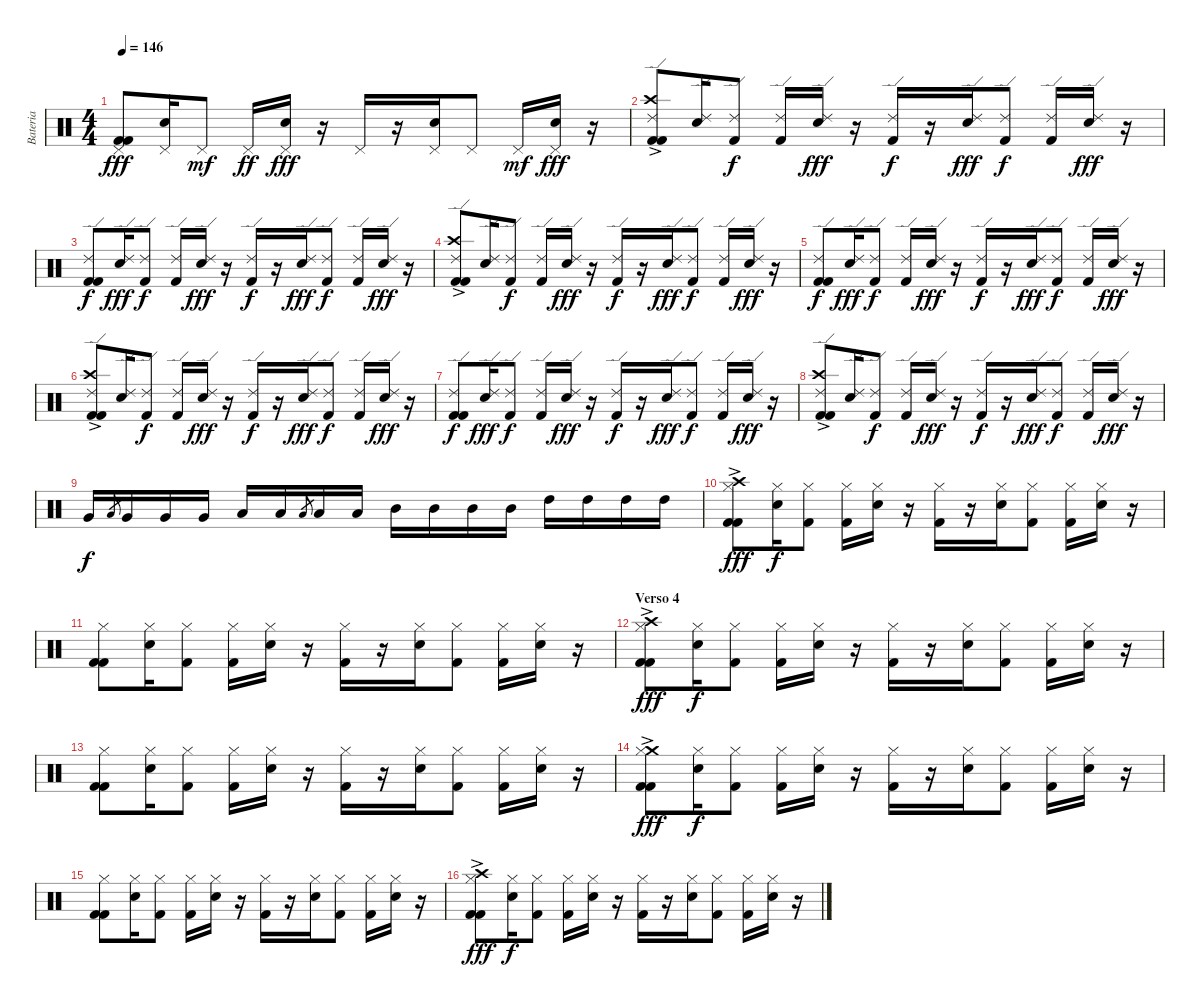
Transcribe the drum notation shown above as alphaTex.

\track ("Bateria" "Bateria") {instrument percussion}
\staff {score}
\articulation defaults
\ts (4 4)
\tempo 146
\clef neutral
\ks c
("Pedal Hi-Hat (hit)" "Kick (hit) 2" "Kick (hit) 2").8{dy fff} ("Pedal Hi-Hat (hit)" "Electric Snare (hit)").16 "Pedal Hi-Hat (hit)".8{dy mf} "Pedal Hi-Hat (hit)".16{dy ff} ("Pedal Hi-Hat (hit)" "Electric Snare (hit)").16{dy fff} r.16 "Pedal Hi-Hat (hit)".16 r.16 ("Pedal Hi-Hat (hit)" "Electric Snare (hit)").16 "Pedal Hi-Hat (hit)".8 "Pedal Hi-Hat (hit)".16{dy mf} ("Pedal Hi-Hat (hit)" "Electric Snare (hit)").16{dy fff} r.16 |
("Crash high (hit)"{ac} "Ride (edge) 2" "Kick (hit) 2" "Kick (hit) 2").8 ("Ride (edge) 2" "Electric Snare (hit)").16 ("Ride (edge) 2" "Kick (hit) 2").8{dy f} ("Ride (edge) 2" "Kick (hit) 2").16 ("Ride (edge) 2" "Electric Snare (hit)").16{dy fff} r.16 ("Ride (edge) 2" "Kick (hit) 2").16{dy f} r.16 ("Ride (edge) 2" "Electric Snare (hit)").16{dy fff} ("Ride (edge) 2" "Kick (hit) 2").8{dy f} ("Ride (edge) 2" "Kick (hit) 2").16 ("Ride (edge) 2" "Electric Snare (hit)").16{dy fff} r.16 |
("Ride (edge) 2" "Kick (hit) 2" "Kick (hit) 2").8{dy f} ("Ride (edge) 2" "Electric Snare (hit)").16{dy fff} ("Ride (edge) 2" "Kick (hit) 2").8{dy f} ("Ride (edge) 2" "Kick (hit) 2").16 ("Ride (edge) 2" "Electric Snare (hit)").16{dy fff} r.16 ("Ride (edge) 2" "Kick (hit) 2").16{dy f} r.16 ("Ride (edge) 2" "Electric Snare (hit)").16{dy fff} ("Ride (edge) 2" "Kick (hit) 2").8{dy f} ("Ride (edge) 2" "Kick (hit) 2").16 ("Ride (edge) 2" "Electric Snare (hit)").16{dy fff} r.16 |
("Crash high (hit)"{ac} "Ride (edge) 2" "Kick (hit) 2" "Kick (hit) 2").8 ("Ride (edge) 2" "Electric Snare (hit)").16 ("Ride (edge) 2" "Kick (hit) 2").8{dy f} ("Ride (edge) 2" "Kick (hit) 2").16 ("Ride (edge) 2" "Electric Snare (hit)").16{dy fff} r.16 ("Ride (edge) 2" "Kick (hit) 2").16{dy f} r.16 ("Ride (edge) 2" "Electric Snare (hit)").16{dy fff} ("Ride (edge) 2" "Kick (hit) 2").8{dy f} ("Ride (edge) 2" "Kick (hit) 2").16 ("Ride (edge) 2" "Electric Snare (hit)").16{dy fff} r.16 |
("Ride (edge) 2" "Kick (hit) 2" "Kick (hit) 2").8{dy f} ("Ride (edge) 2" "Electric Snare (hit)").16{dy fff} ("Ride (edge) 2" "Kick (hit) 2").8{dy f} ("Ride (edge) 2" "Kick (hit) 2").16 ("Ride (edge) 2" "Electric Snare (hit)").16{dy fff} r.16 ("Ride (edge) 2" "Kick (hit) 2").16{dy f} r.16 ("Ride (edge) 2" "Electric Snare (hit)").16{dy fff} ("Ride (edge) 2" "Kick (hit) 2").8{dy f} ("Ride (edge) 2" "Kick (hit) 2").16 ("Ride (edge) 2" "Electric Snare (hit)").16{dy fff} r.16 |
("Crash high (hit)"{ac} "Ride (edge) 2" "Kick (hit) 2" "Kick (hit) 2").8 ("Ride (edge) 2" "Electric Snare (hit)").16 ("Ride (edge) 2" "Kick (hit) 2").8{dy f} ("Ride (edge) 2" "Kick (hit) 2").16 ("Ride (edge) 2" "Electric Snare (hit)").16{dy fff} r.16 ("Ride (edge) 2" "Kick (hit) 2").16{dy f} r.16 ("Ride (edge) 2" "Electric Snare (hit)").16{dy fff} ("Ride (edge) 2" "Kick (hit) 2").8{dy f} ("Ride (edge) 2" "Kick (hit) 2").16 ("Ride (edge) 2" "Electric Snare (hit)").16{dy fff} r.16 |
("Ride (edge) 2" "Kick (hit) 2" "Kick (hit) 2").8{dy f} ("Ride (edge) 2" "Electric Snare (hit)").16{dy fff} ("Ride (edge) 2" "Kick (hit) 2").8{dy f} ("Ride (edge) 2" "Kick (hit) 2").16 ("Ride (edge) 2" "Electric Snare (hit)").16{dy fff} r.16 ("Ride (edge) 2" "Kick (hit) 2").16{dy f} r.16 ("Ride (edge) 2" "Electric Snare (hit)").16{dy fff} ("Ride (edge) 2" "Kick (hit) 2").8{dy f} ("Ride (edge) 2" "Kick (hit) 2").16 ("Ride (edge) 2" "Electric Snare (hit)").16{dy fff} r.16 |
("Crash high (hit)"{ac} "Ride (edge) 2" "Kick (hit) 2" "Kick (hit) 2").8 ("Ride (edge) 2" "Electric Snare (hit)").16 ("Ride (edge) 2" "Kick (hit) 2").8{dy f} ("Ride (edge) 2" "Kick (hit) 2").16 ("Ride (edge) 2" "Electric Snare (hit)").16{dy fff} r.16 ("Ride (edge) 2" "Kick (hit) 2").16{dy f} r.16 ("Ride (edge) 2" "Electric Snare (hit)").16{dy fff} ("Ride (edge) 2" "Kick (hit) 2").8{dy f} ("Ride (edge) 2" "Kick (hit) 2").16 ("Ride (edge) 2" "Electric Snare (hit)").16{dy fff} r.16 |
"Very Low Tom (hit)".16{dy f} "Low Tom (hit)".8{gr} "Very Low Tom (hit)".16 "Very Low Tom (hit)".16 "Very Low Tom (hit)".16 "Low Tom (hit)".16 "Low Tom (hit)".16 "Low Tom (hit)".8{gr} "Low Tom (hit)".16 "Low Tom (hit)".16 "Mid Tom (hit)".16 "Mid Tom (hit)".16 "Mid Tom (hit)".16 "Mid Tom (hit)".16 "High Tom (hit)".16 "High Tom (hit)".16 "High Tom (hit)".16 "High Tom (hit)".16 |
("Crash high (hit)"{ac} "Hi-Hat (closed)" "Kick (hit) 2" "Kick (hit) 2").8{dy fff} ("Hi-Hat (closed)" "Electric Snare (hit)").16{dy f} ("Hi-Hat (closed)" "Kick (hit) 2").8 ("Hi-Hat (closed)" "Kick (hit) 2").16 ("Hi-Hat (closed)" "Electric Snare (hit)").16 r.16 ("Hi-Hat (closed)" "Kick (hit) 2").16 r.16 ("Hi-Hat (closed)" "Electric Snare (hit)").16 ("Hi-Hat (closed)" "Kick (hit) 2").8 ("Hi-Hat (closed)" "Kick (hit) 2").16 ("Hi-Hat (closed)" "Electric Snare (hit)").16 r.16 |
("Hi-Hat (closed)" "Kick (hit) 2" "Kick (hit) 2").8 ("Hi-Hat (closed)" "Electric Snare (hit)").16 ("Hi-Hat (closed)" "Kick (hit) 2").8 ("Hi-Hat (closed)" "Kick (hit) 2").16 ("Hi-Hat (closed)" "Electric Snare (hit)").16 r.16 ("Hi-Hat (closed)" "Kick (hit) 2").16 r.16 ("Hi-Hat (closed)" "Electric Snare (hit)").16 ("Hi-Hat (closed)" "Kick (hit) 2").8 ("Hi-Hat (closed)" "Kick (hit) 2").16 ("Hi-Hat (closed)" "Electric Snare (hit)").16 r.16 |
\section ("" "Verso 4")
("Crash high (hit)"{ac} "Hi-Hat (closed)" "Kick (hit) 2" "Kick (hit) 2").8{dy fff} ("Hi-Hat (closed)" "Electric Snare (hit)").16{dy f} ("Hi-Hat (closed)" "Kick (hit) 2").8 ("Hi-Hat (closed)" "Kick (hit) 2").16 ("Hi-Hat (closed)" "Electric Snare (hit)").16 r.16 ("Hi-Hat (closed)" "Kick (hit) 2").16 r.16 ("Hi-Hat (closed)" "Electric Snare (hit)").16 ("Hi-Hat (closed)" "Kick (hit) 2").8 ("Hi-Hat (closed)" "Kick (hit) 2").16 ("Hi-Hat (closed)" "Electric Snare (hit)").16 r.16 |
("Hi-Hat (closed)" "Kick (hit) 2" "Kick (hit) 2").8 ("Hi-Hat (closed)" "Electric Snare (hit)").16 ("Hi-Hat (closed)" "Kick (hit) 2").8 ("Hi-Hat (closed)" "Kick (hit) 2").16 ("Hi-Hat (closed)" "Electric Snare (hit)").16 r.16 ("Hi-Hat (closed)" "Kick (hit) 2").16 r.16 ("Hi-Hat (closed)" "Electric Snare (hit)").16 ("Hi-Hat (closed)" "Kick (hit) 2").8 ("Hi-Hat (closed)" "Kick (hit) 2").16 ("Hi-Hat (closed)" "Electric Snare (hit)").16 r.16 |
("Crash medium (hit)"{ac} "Hi-Hat (closed)" "Kick (hit) 2" "Kick (hit) 2").8{dy fff} ("Hi-Hat (closed)" "Electric Snare (hit)").16{dy f} ("Hi-Hat (closed)" "Kick (hit) 2").8 ("Hi-Hat (closed)" "Kick (hit) 2").16 ("Hi-Hat (closed)" "Electric Snare (hit)").16 r.16 ("Hi-Hat (closed)" "Kick (hit) 2").16 r.16 ("Hi-Hat (closed)" "Electric Snare (hit)").16 ("Hi-Hat (closed)" "Kick (hit) 2").8 ("Hi-Hat (closed)" "Kick (hit) 2").16 ("Hi-Hat (closed)" "Electric Snare (hit)").16 r.16 |
("Hi-Hat (closed)" "Kick (hit) 2" "Kick (hit) 2").8 ("Hi-Hat (closed)" "Electric Snare (hit)").16 ("Hi-Hat (closed)" "Kick (hit) 2").8 ("Hi-Hat (closed)" "Kick (hit) 2").16 ("Hi-Hat (closed)" "Electric Snare (hit)").16 r.16 ("Hi-Hat (closed)" "Kick (hit) 2").16 r.16 ("Hi-Hat (closed)" "Electric Snare (hit)").16 ("Hi-Hat (closed)" "Kick (hit) 2").8 ("Hi-Hat (closed)" "Kick (hit) 2").16 ("Hi-Hat (closed)" "Electric Snare (hit)").16 r.16 |
("Crash high (hit)"{ac} "Hi-Hat (closed)" "Kick (hit) 2" "Kick (hit) 2").8{dy fff} ("Hi-Hat (closed)" "Electric Snare (hit)").16{dy f} ("Hi-Hat (closed)" "Kick (hit) 2").8 ("Hi-Hat (closed)" "Kick (hit) 2").16 ("Hi-Hat (closed)" "Electric Snare (hit)").16 r.16 ("Hi-Hat (closed)" "Kick (hit) 2").16 r.16 ("Hi-Hat (closed)" "Electric Snare (hit)").16 ("Hi-Hat (closed)" "Kick (hit) 2").8 ("Hi-Hat (closed)" "Kick (hit) 2").16 ("Hi-Hat (closed)" "Electric Snare (hit)").16 r.16
